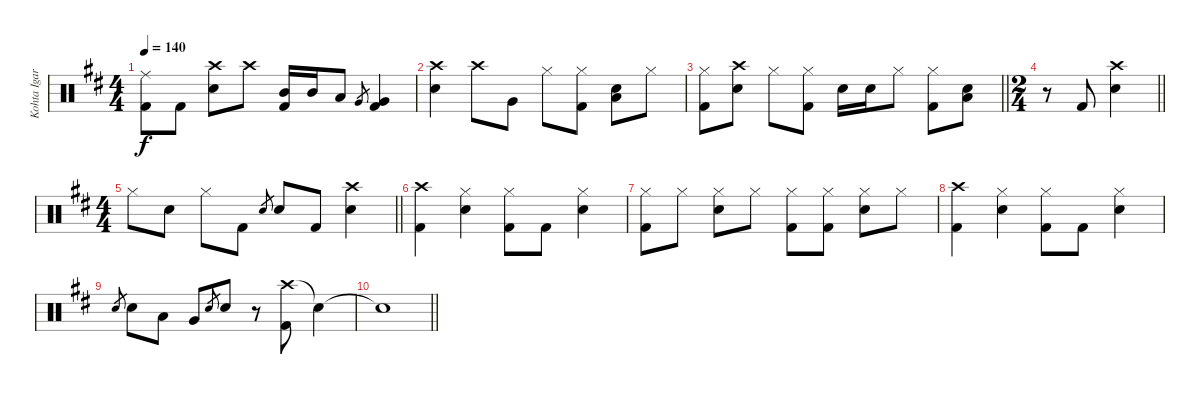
\track ("Kohta Igarashi" "Kohta Igar") {instrument percussion}
\staff {score}
\articulation defaults
\ts (4 4)
\tempo 140
\clef neutral
\ks d
("Ride (middle)" "Kick (hit) 2").8{dy f} "Kick (hit) 2".8 ("Crash high (hit)" "Electric Snare (hit)").8 "Crash high (hit)".8 ("Mid Tom (hit)" "Kick (hit) 2").16 "Mid Tom (hit)".16 "Low Tom (hit)".8 "Very Low Tom (hit)".8{gr} ("Very Low Tom (hit)" "Kick (hit) 2").4 |
("Crash high (hit)" "Electric Snare (hit)").4 "Crash high (hit)".8 "Very Low Tom (hit)".8 "Hi-Hat (closed)".8 ("Hi-Hat (closed)" "Kick (hit) 2").8 ("Electric Snare (hit)" "Low Floor Tom (hit)").8 "Hi-Hat (closed)".8 |
\barLineRight lightlight
("Hi-Hat (closed)" "Kick (hit) 2").8 ("Crash high (hit)" "Electric Snare (hit)").8 "Hi-Hat (closed)".8 ("Hi-Hat (closed)" "Kick (hit) 2").8 "Electric Snare (hit)".16 "Electric Snare (hit)".16 "Hi-Hat (closed)".8 ("Hi-Hat (closed)" "Kick (hit) 2").8 ("Electric Snare (hit)" "Low Floor Tom (hit)").8 |
\ts (2 4)
\barLineRight lightlight
r.8 "Kick (hit) 2".8 ("Crash high (hit)" "Electric Snare (hit)").4 |
\ts (4 4)
\barLineRight lightlight "Hi-Hat (closed)".8 "Electric Snare (hit)".8 "Hi-Hat (closed)".8 "Kick (hit) 2".8 "Electric Snare (hit)".8{gr} "Electric Snare (hit)".8 "Kick (hit) 2".8
("Crash high (hit)" "Electric Snare (hit)").4 |
("Crash high (hit)" "Kick (hit) 2").4 ("Hi-Hat (closed)" "Electric Snare (hit)").4 ("Hi-Hat (closed)" "Kick (hit) 2").8 "Kick (hit) 2".8 ("Hi-Hat (closed)" "Electric Snare (hit)").4 |
("Hi-Hat (closed)" "Kick (hit) 2").8 "Hi-Hat (closed)".8 ("Hi-Hat (closed)" "Electric Snare (hit)").8 "Hi-Hat (closed)".8 ("Hi-Hat (closed)" "Kick (hit) 2").8 ("Hi-Hat (closed)" "Kick (hit) 2").8 ("Hi-Hat (closed)" "Electric Snare (hit)").8 "Hi-Hat (closed)".8 |
("Crash high (hit)" "Kick (hit) 2").4 ("Hi-Hat (closed)" "Electric Snare (hit)").4 ("Hi-Hat (closed)" "Kick (hit) 2").8 "Kick (hit) 2".8 ("Hi-Hat (closed)" "Electric Snare (hit)").4 |
"Electric Snare (hit)".8{gr} "Electric Snare (hit)".8 "Low Tom (hit)".8 "Very Low Tom (hit)".8 "Electric Snare (hit)".8{gr} "Electric Snare (hit)".8 r.8 ("Crash high (hit)" "Kick (hit) 2").8 "Snare (hit)"{t}.4 |
\barLineRight lightlight "Snare (hit)"{t}.1
